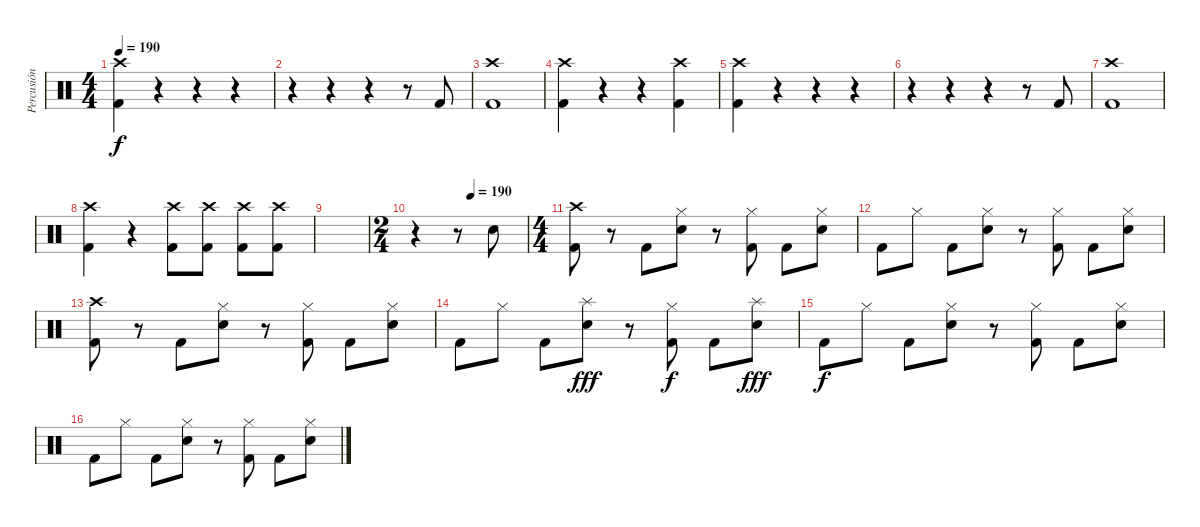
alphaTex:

\track ("Percusión" "Percusión") {instrument percussion}
\staff {score}
\articulation defaults
\ts (4 4)
\tempo 190
\tempo 70
\tempo 190
\clef neutral
\ks c
("Crash high (hit)" "Kick (hit) 2").4{dy f} r.4 r.4 r.4 |
r.4 r.4 r.4 r.8 "Kick (hit) 2".8 |
("Crash high (hit)" "Kick (hit) 2").1 |
("Crash high (hit)" "Kick (hit) 2").4 r.4 r.4 ("Crash high (hit)" "Kick (hit) 2").4 |
("Crash high (hit)" "Kick (hit) 2").4 r.4 r.4 r.4 |
r.4 r.4 r.4 r.8 "Kick (hit) 2".8 |
("Crash high (hit)" "Kick (hit) 2").1 |
("Crash high (hit)" "Kick (hit) 2").4 r.4 ("Crash high (hit)" "Kick (hit) 2").8 ("Crash high (hit)" "Kick (hit) 2").8 ("Crash high (hit)" "Kick (hit) 2").8 ("Crash high (hit)" "Kick (hit) 2").8 |
|
\ts (2 4)
\tempo (190 0.5)
r.4 r.8 "Snare (hit) 2".8 |
\ts (4 4)
("Crash high (hit)" "Kick (hit) 2").8 r.8 "Kick (hit) 2".8 ("Hi-Hat (closed)" "Snare (hit) 2").8 r.8 ("Hi-Hat (closed)" "Kick (hit) 2").8 "Kick (hit) 2".8 ("Hi-Hat (closed)" "Snare (hit) 2").8 |
"Kick (hit) 2".8 "Hi-Hat (closed)".8 "Kick (hit) 2".8 ("Hi-Hat (closed)" "Snare (hit) 2").8 r.8 ("Hi-Hat (closed)" "Kick (hit) 2").8 "Kick (hit) 2".8 ("Hi-Hat (closed)" "Snare (hit) 2").8 |
("Crash high (hit)" "Kick (hit) 2").8 r.8 "Kick (hit) 2".8 ("Hi-Hat (closed)" "Snare (hit) 2").8 r.8 ("Hi-Hat (closed)" "Kick (hit) 2").8 "Kick (hit) 2".8 ("Hi-Hat (closed)" "Snare (hit) 2").8 |
"Kick (hit) 2".8 "Hi-Hat (closed)".8 "Kick (hit) 2".8 ("Splash (hit)" "Snare (hit) 2").8{dy fff} r.8 ("Hi-Hat (closed)" "Kick (hit) 2").8{dy f} "Kick (hit) 2".8 ("Splash (hit)" "Snare (hit) 2").8{dy fff} |
"Kick (hit) 2".8{dy f} "Hi-Hat (closed)".8 "Kick (hit) 2".8 ("Hi-Hat (closed)" "Snare (hit) 2").8 r.8 ("Hi-Hat (closed)" "Kick (hit) 2").8 "Kick (hit) 2".8 ("Hi-Hat (closed)" "Snare (hit) 2").8 |
"Kick (hit) 2".8 "Hi-Hat (closed)".8 "Kick (hit) 2".8 ("Hi-Hat (closed)" "Snare (hit) 2").8 r.8 ("Hi-Hat (closed)" "Kick (hit) 2").8 "Kick (hit) 2".8 ("Hi-Hat (closed)" "Snare (hit) 2").8
